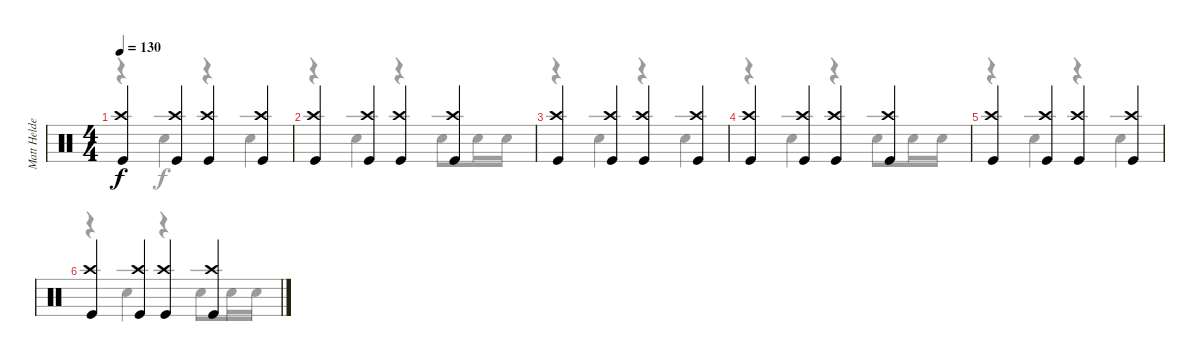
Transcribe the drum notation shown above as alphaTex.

\track ("Matt Helders (Drums)" "Matt Helde") {instrument percussion}
\staff {score}
\articulation defaults
\voice
\ts (4 4)
\tempo 130
\clef neutral
\ks c
("Crash high (hit)" "Kick (hit)").4{dy f} ("Crash high (hit)" "Kick (hit)").4 ("Crash high (hit)" "Kick (hit)").4 ("Crash high (hit)" "Kick (hit)").4 |
("Crash high (hit)" "Kick (hit)").4 ("Crash high (hit)" "Kick (hit)").4 ("Crash high (hit)" "Kick (hit)").4 ("Crash high (hit)" "Kick (hit)").4 |
("Crash high (hit)" "Kick (hit)").4 ("Crash high (hit)" "Kick (hit)").4 ("Crash high (hit)" "Kick (hit)").4 ("Crash high (hit)" "Kick (hit)").4 |
("Crash high (hit)" "Kick (hit)").4 ("Crash high (hit)" "Kick (hit)").4 ("Crash high (hit)" "Kick (hit)").4 ("Crash high (hit)" "Kick (hit)").4 |
("Crash high (hit)" "Kick (hit)").4 ("Crash high (hit)" "Kick (hit)").4 ("Crash high (hit)" "Kick (hit)").4 ("Crash high (hit)" "Kick (hit)").4 |
("Crash high (hit)" "Kick (hit)").4 ("Crash high (hit)" "Kick (hit)").4 ("Crash high (hit)" "Kick (hit)").4 ("Crash high (hit)" "Kick (hit)").4
\voice
\clef neutral
\ottava regular
\simile none
\ks c
r.4{dy f} "Snare (hit) 2".4 r.4 "Snare (hit) 2".4 |
r.4 "Snare (hit) 2".4 r.4 "Snare (hit) 2".8 "Snare (hit) 2".16 "Snare (hit) 2".16 |
r.4 "Snare (hit) 2".4 r.4 "Snare (hit) 2".4 |
r.4 "Snare (hit) 2".4 r.4 "Snare (hit) 2".8 "Snare (hit) 2".16 "Snare (hit) 2".16 |
r.4 "Snare (hit) 2".4 r.4 "Snare (hit) 2".4 |
r.4 "Snare (hit) 2".4 r.4 "Snare (hit) 2".8 "Snare (hit) 2".16 "Snare (hit) 2".16
